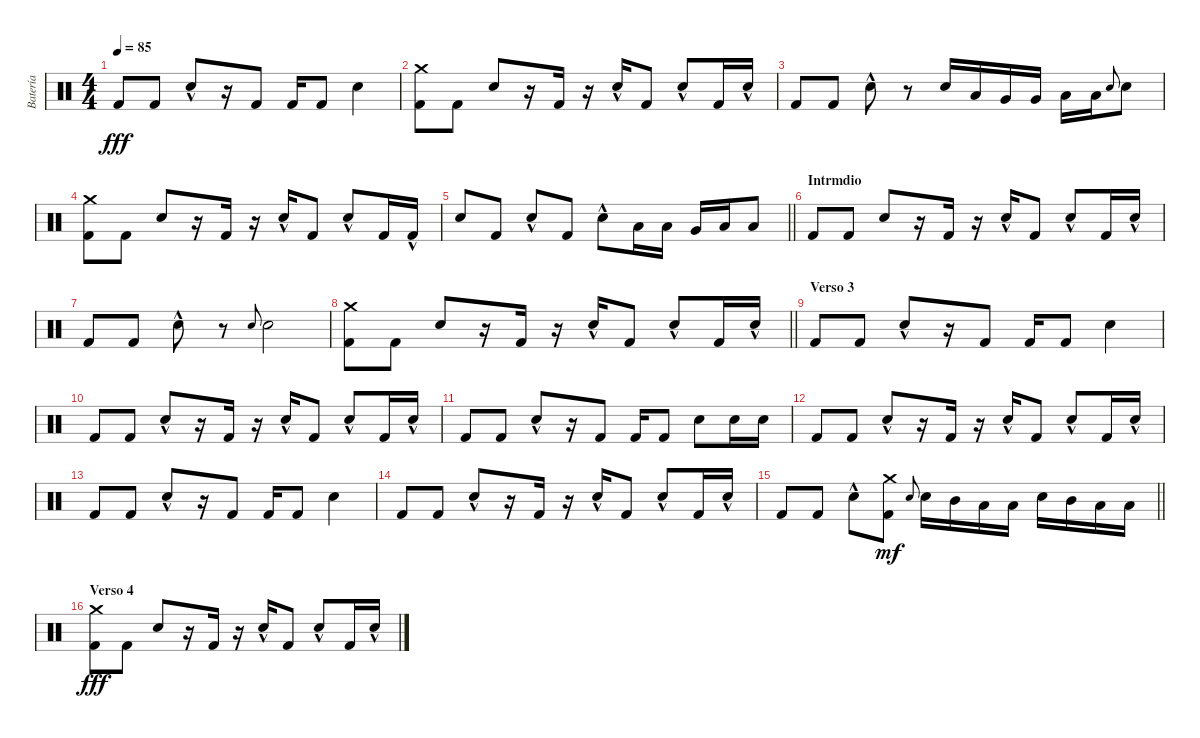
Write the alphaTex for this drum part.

\track ("Batería" "Batería") {instrument percussion}
\staff {score}
\articulation defaults
\ts (4 4)
\tempo 85
\clef neutral
\ks c "Kick (hit) 2".8{dy fff} "Kick (hit) 2".8 "Electric Snare (hit)"{hac}.8
r.16 "Kick (hit) 2".8 "Kick (hit) 2".16 "Kick (hit) 2".8 "Electric Snare (hit)".4 |
("Kick (hit) 2" "Crash medium (hit)").8 "Kick (hit) 2".8 "Electric Snare (hit)".8 r.16 "Kick (hit) 2".16 r.16 "Electric Snare (hit)"{hac}.16 "Kick (hit) 2".8 "Electric Snare (hit)"{hac}.8 "Kick (hit) 2".16 "Electric Snare (hit)"{hac}.16 |
"Kick (hit) 2".8 "Kick (hit) 2".8 "Electric Snare (hit)"{hac}.8 r.8 "Electric Snare (hit)".16 "Low Tom (hit)".16 "Very Low Tom (hit)".16 "Very Low Tom (hit)".16 "Low Floor Tom (hit)".16 "Low Floor Tom (hit)".16 "Electric Snare (hit)".8{gr onbeat} "Electric Snare (hit)".8 |
("Kick (hit) 2" "Crash medium (hit)").8 "Kick (hit) 2".8 "Electric Snare (hit)".8 r.16 "Kick (hit) 2".16 r.16 "Electric Snare (hit)"{hac}.16 "Kick (hit) 2".8 "Electric Snare (hit)"{hac}.8 "Kick (hit) 2".16 "Kick (hit) 2"{hac}.16 |
\barLineRight lightlight "Electric Snare (hit)".8 "Kick (hit) 2".8 "Electric Snare (hit)"{hac}.8 "Kick (hit) 2".8 "Electric Snare (hit)"{hac}.8 "Low Tom (hit)".16 "Low Tom (hit)".16 "Very Low Tom (hit)".16 "Low Floor Tom (hit)".16 "Low Floor Tom (hit)".8
|
\section ("" "Intrmdio")
"Kick (hit) 2".8 "Kick (hit) 2".8 "Electric Snare (hit)".8 r.16 "Kick (hit) 2".16 r.16 "Electric Snare (hit)"{hac}.16 "Kick (hit) 2".8 "Electric Snare (hit)"{hac}.8 "Kick (hit) 2".16 "Electric Snare (hit)"{hac}.16 |
"Kick (hit) 2".8 "Kick (hit) 2".8 "Electric Snare (hit)"{hac}.8 r.8 "Electric Snare (hit)".8{gr onbeat} "Electric Snare (hit)".2 |
\barLineRight lightlight
("Kick (hit) 2" "Crash medium (hit)").8 "Kick (hit) 2".8 "Electric Snare (hit)".8 r.16 "Kick (hit) 2".16 r.16 "Electric Snare (hit)"{hac}.16 "Kick (hit) 2".8 "Electric Snare (hit)"{hac}.8 "Kick (hit) 2".16 "Electric Snare (hit)"{hac}.16 |
\section ("" "Verso 3")
"Kick (hit) 2".8 "Kick (hit) 2".8 "Electric Snare (hit)"{hac}.8 r.16 "Kick (hit) 2".8 "Kick (hit) 2".16 "Kick (hit) 2".8 "Electric Snare (hit)".4 |
"Kick (hit) 2".8 "Kick (hit) 2".8 "Electric Snare (hit)"{hac}.8 r.16 "Kick (hit) 2".16 r.16 "Electric Snare (hit)"{hac}.16 "Kick (hit) 2".8 "Electric Snare (hit)"{hac}.8 "Kick (hit) 2".16 "Electric Snare (hit)"{hac}.16 |
"Kick (hit) 2".8 "Kick (hit) 2".8 "Electric Snare (hit)"{hac}.8 r.16 "Kick (hit) 2".8 "Kick (hit) 2".16 "Kick (hit) 2".8 "Electric Snare (hit)".8 "Electric Snare (hit)".16 "Electric Snare (hit)".16 |
"Kick (hit) 2".8 "Kick (hit) 2".8 "Electric Snare (hit)"{hac}.8 r.16 "Kick (hit) 2".16 r.16 "Electric Snare (hit)"{hac}.16 "Kick (hit) 2".8 "Electric Snare (hit)"{hac}.8 "Kick (hit) 2".16 "Electric Snare (hit)"{hac}.16 |
"Kick (hit) 2".8 "Kick (hit) 2".8 "Electric Snare (hit)"{hac}.8 r.16 "Kick (hit) 2".8 "Kick (hit) 2".16 "Kick (hit) 2".8 "Electric Snare (hit)".4 |
"Kick (hit) 2".8 "Kick (hit) 2".8 "Electric Snare (hit)"{hac}.8 r.16 "Kick (hit) 2".16 r.16 "Electric Snare (hit)"{hac}.16 "Kick (hit) 2".8 "Electric Snare (hit)"{hac}.8 "Kick (hit) 2".16 "Electric Snare (hit)"{hac}.16 |
\barLineRight lightlight "Kick (hit) 2".8 "Kick (hit) 2".8 "Electric Snare (hit)"{hac}.8
("Kick (hit) 2" "Crash medium (hit)").8{dy mf} "Electric Snare (hit)".8{gr onbeat} "Electric Snare (hit)".16 "Mid Tom (hit)".16 "Low Tom (hit)".16 "Low Tom (hit)".16 "Electric Snare (hit)".16 "Mid Tom (hit)".16 "Low Tom (hit)".16 "Low Tom (hit)".16 |
\section ("" "Verso 4")
("Kick (hit) 2" "Crash medium (hit)").8{dy fff} "Kick (hit) 2".8 "Electric Snare (hit)".8 r.16 "Kick (hit) 2".16 r.16 "Electric Snare (hit)"{hac}.16 "Kick (hit) 2".8 "Electric Snare (hit)"{hac}.8 "Kick (hit) 2".16 "Electric Snare (hit)"{hac}.16
